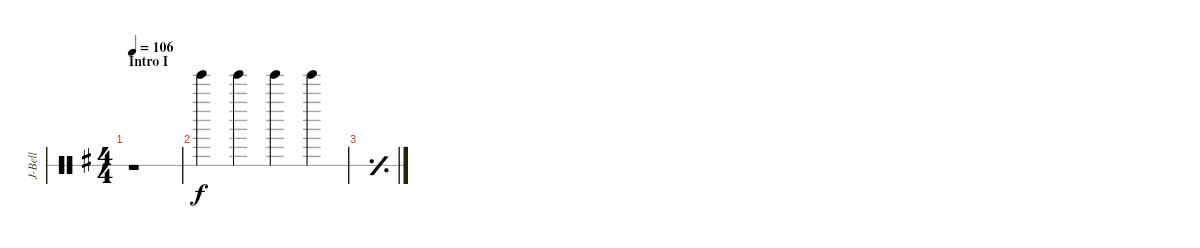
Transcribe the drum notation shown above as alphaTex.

\defaultSystemsLayout 4
\bracketExtendMode groupsimilarinstruments
\otherSystemsTrackNameOrientation horizontal
\track ("Jingle Bell" "J-Bell") {multiBarRest instrument percussion}
\staff {score 1}
\articulation defaults
\ts (4 4)
\section ("" "Intro I")
\tempo 106
\clef neutral
\ks g
r.1{dy f} |
"Jingle Bell (hit)"{acc forcenatural}.4 "Jingle Bell (hit)"{acc forcenatural}.4 "Jingle Bell (hit)"{acc forcenatural}.4 "Jingle Bell (hit)"{acc forcenatural}.4 |
\simile simple
